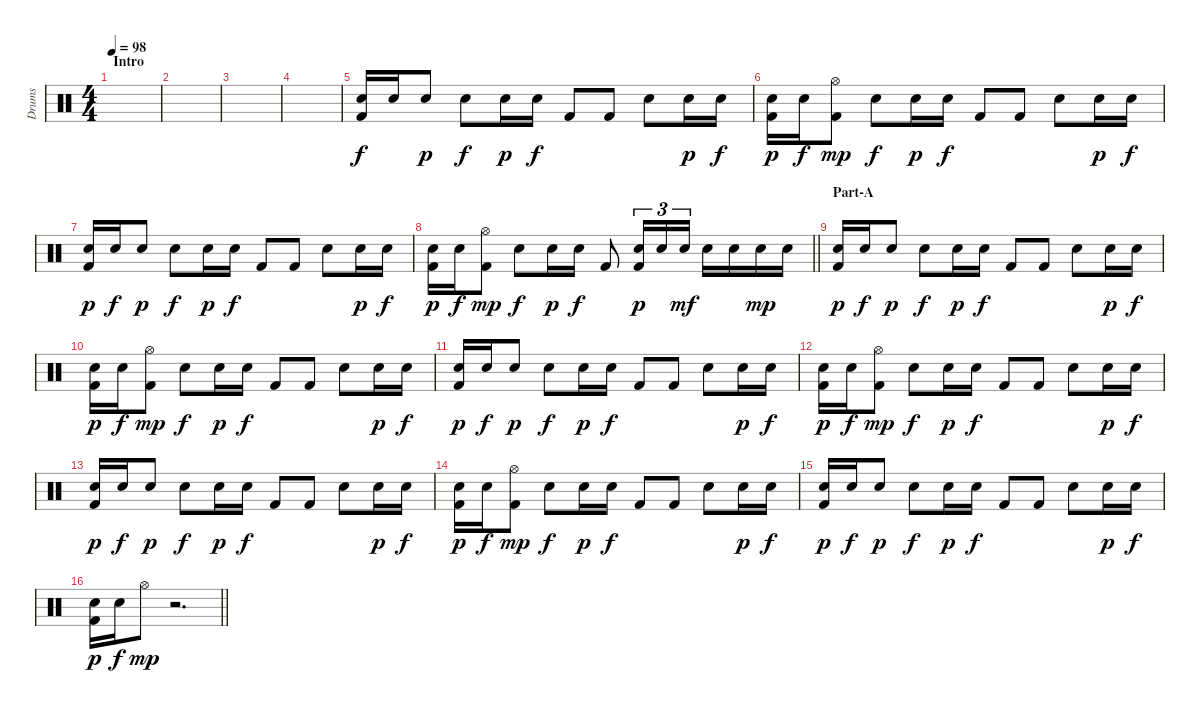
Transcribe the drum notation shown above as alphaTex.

\track ("Drums" "Drums") {instrument percussion}
\staff {score}
\articulation defaults
\ts (4 4)
\section ("" "Intro")
\tempo 98
\clef neutral
\ks c
|
|
|
|
("Electric Snare (hit)" "Kick (hit) 2").16 "Snare (hit) 2".16{dy f} "Electric Snare (hit)".8{dy p} "Snare (hit) 2".8{dy f} "Electric Snare (hit)".16{dy p} "Snare (hit) 2".16{dy f} "Kick (hit) 2".8 "Kick (hit) 2".8 "Snare (hit) 2".8 "Electric Snare (hit)".16{dy p} "Snare (hit) 2".16{dy f} |
("Electric Snare (hit)" "Kick (hit) 2").16{dy p} "Snare (hit) 2".16{dy f} ("Hi-Hat (open)" "Kick (hit) 2").8{dy mp} "Snare (hit) 2".8{dy f} "Electric Snare (hit)".16{dy p} "Snare (hit) 2".16{dy f} "Kick (hit) 2".8 "Kick (hit) 2".8 "Snare (hit) 2".8 "Electric Snare (hit)".16{dy p} "Snare (hit) 2".16{dy f} |
("Electric Snare (hit)" "Kick (hit) 2").16{dy p} "Snare (hit) 2".16{dy f} "Electric Snare (hit)".8{dy p} "Snare (hit) 2".8{dy f} "Electric Snare (hit)".16{dy p} "Snare (hit) 2".16{dy f} "Kick (hit) 2".8 "Kick (hit) 2".8 "Snare (hit) 2".8 "Electric Snare (hit)".16{dy p} "Snare (hit) 2".16{dy f} |
\barLineRight lightlight
("Electric Snare (hit)" "Kick (hit) 2").16{dy p} "Snare (hit) 2".16{dy f} ("Hi-Hat (open)" "Kick (hit) 2").8{dy mp} "Snare (hit) 2".8{dy f} "Electric Snare (hit)".16{dy p} "Snare (hit) 2".16{dy f} "Kick (hit) 2".8 ("Electric Snare (hit)" "Kick (hit) 2").16{tu (3 2) dy p} "Electric Snare (hit)".16{tu (3 2)} "Snare (hit) 2".16{tu (3 2) dy mf} "Snare (hit) 2".16 "Snare (hit) 2".16 "Electric Snare (hit)".16{dy mp} "Electric Snare (hit)".16 |
\section ("" "Part-A")
("Electric Snare (hit)" "Kick (hit) 2").16{dy p} "Snare (hit) 2".16{dy f} "Electric Snare (hit)".8{dy p} "Snare (hit) 2".8{dy f} "Electric Snare (hit)".16{dy p} "Snare (hit) 2".16{dy f} "Kick (hit) 2".8 "Kick (hit) 2".8 "Snare (hit) 2".8 "Electric Snare (hit)".16{dy p} "Snare (hit) 2".16{dy f} |
("Electric Snare (hit)" "Kick (hit) 2").16{dy p} "Snare (hit) 2".16{dy f} ("Hi-Hat (open)" "Kick (hit) 2").8{dy mp} "Snare (hit) 2".8{dy f} "Electric Snare (hit)".16{dy p} "Snare (hit) 2".16{dy f} "Kick (hit) 2".8 "Kick (hit) 2".8 "Snare (hit) 2".8 "Electric Snare (hit)".16{dy p} "Snare (hit) 2".16{dy f} |
("Electric Snare (hit)" "Kick (hit) 2").16{dy p} "Snare (hit) 2".16{dy f} "Electric Snare (hit)".8{dy p} "Snare (hit) 2".8{dy f} "Electric Snare (hit)".16{dy p} "Snare (hit) 2".16{dy f} "Kick (hit) 2".8 "Kick (hit) 2".8 "Snare (hit) 2".8 "Electric Snare (hit)".16{dy p} "Snare (hit) 2".16{dy f} |
("Electric Snare (hit)" "Kick (hit) 2").16{dy p} "Snare (hit) 2".16{dy f} ("Hi-Hat (open)" "Kick (hit) 2").8{dy mp} "Snare (hit) 2".8{dy f} "Electric Snare (hit)".16{dy p} "Snare (hit) 2".16{dy f} "Kick (hit) 2".8 "Kick (hit) 2".8 "Snare (hit) 2".8 "Electric Snare (hit)".16{dy p} "Snare (hit) 2".16{dy f} |
("Electric Snare (hit)" "Kick (hit) 2").16{dy p} "Snare (hit) 2".16{dy f} "Electric Snare (hit)".8{dy p} "Snare (hit) 2".8{dy f} "Electric Snare (hit)".16{dy p} "Snare (hit) 2".16{dy f} "Kick (hit) 2".8 "Kick (hit) 2".8 "Snare (hit) 2".8 "Electric Snare (hit)".16{dy p} "Snare (hit) 2".16{dy f} |
("Electric Snare (hit)" "Kick (hit) 2").16{dy p} "Snare (hit) 2".16{dy f} ("Hi-Hat (open)" "Kick (hit) 2").8{dy mp} "Snare (hit) 2".8{dy f} "Electric Snare (hit)".16{dy p} "Snare (hit) 2".16{dy f} "Kick (hit) 2".8 "Kick (hit) 2".8 "Snare (hit) 2".8 "Electric Snare (hit)".16{dy p} "Snare (hit) 2".16{dy f} |
("Electric Snare (hit)" "Kick (hit) 2").16{dy p} "Snare (hit) 2".16{dy f} "Electric Snare (hit)".8{dy p} "Snare (hit) 2".8{dy f} "Electric Snare (hit)".16{dy p} "Snare (hit) 2".16{dy f} "Kick (hit) 2".8 "Kick (hit) 2".8 "Snare (hit) 2".8 "Electric Snare (hit)".16{dy p} "Snare (hit) 2".16{dy f} |
\barLineRight lightlight
("Electric Snare (hit)" "Kick (hit) 2").16{dy p} "Snare (hit) 2".16{dy f} "Hi-Hat (open)".8{dy mp} r.2{d}
